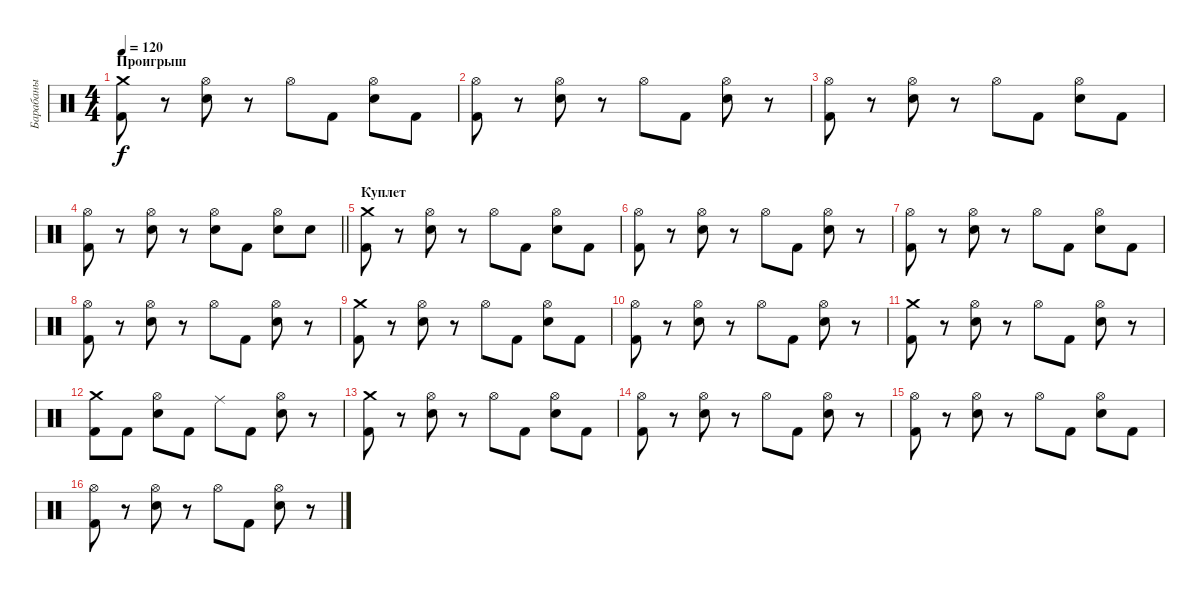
\track ("Барабаны" "Барабаны") {instrument percussion}
\staff {score}
\articulation defaults
\ts (4 4)
\section ("" "Проигрыш")
\tempo 120
\clef neutral
\ks c
("Kick (hit) 2" "Crash medium (hit)").8{dy f} r.8 ("Hi-Hat (open)" "Snare (hit) 2").8 r.8 "Hi-Hat (open)".8 "Kick (hit) 2".8 ("Hi-Hat (open)" "Snare (hit) 2").8 "Kick (hit) 2".8 |
("Hi-Hat (open)" "Kick (hit) 2").8 r.8 ("Hi-Hat (open)" "Snare (hit) 2").8 r.8 "Hi-Hat (open)".8 "Kick (hit) 2".8 ("Hi-Hat (open)" "Snare (hit) 2").8 r.8 |
("Hi-Hat (open)" "Kick (hit) 2").8 r.8 ("Hi-Hat (open)" "Snare (hit) 2").8 r.8 "Hi-Hat (open)".8 "Kick (hit) 2".8 ("Hi-Hat (open)" "Snare (hit) 2").8 "Kick (hit) 2".8 |
\barLineRight lightlight
("Hi-Hat (open)" "Kick (hit) 2").8 r.8 ("Hi-Hat (open)" "Snare (hit) 2").8 r.8 ("Hi-Hat (open)" "Snare (hit) 2").8 "Kick (hit) 2".8 ("Hi-Hat (open)" "Snare (hit) 2").8 "Snare (hit) 2".8 |
\section ("" "Куплет")
("Kick (hit) 2" "Crash medium (hit)").8 r.8 ("Hi-Hat (open)" "Snare (hit) 2").8 r.8 "Hi-Hat (open)".8 "Kick (hit) 2".8 ("Hi-Hat (open)" "Snare (hit) 2").8 "Kick (hit) 2".8 |
("Hi-Hat (open)" "Kick (hit) 2").8 r.8 ("Hi-Hat (open)" "Snare (hit) 2").8 r.8 "Hi-Hat (open)".8 "Kick (hit) 2".8 ("Hi-Hat (open)" "Snare (hit) 2").8 r.8 |
("Hi-Hat (open)" "Kick (hit) 2").8 r.8 ("Hi-Hat (open)" "Snare (hit) 2").8 r.8 "Hi-Hat (open)".8 "Kick (hit) 2".8 ("Hi-Hat (open)" "Snare (hit) 2").8 "Kick (hit) 2".8 |
("Hi-Hat (open)" "Kick (hit) 2").8 r.8 ("Hi-Hat (open)" "Snare (hit) 2").8 r.8 "Hi-Hat (open)".8 "Kick (hit) 2".8 ("Hi-Hat (open)" "Snare (hit) 2").8 r.8 |
("Kick (hit) 2" "Crash medium (hit)").8 r.8 ("Hi-Hat (open)" "Snare (hit) 2").8 r.8 "Hi-Hat (open)".8 "Kick (hit) 2".8 ("Hi-Hat (open)" "Snare (hit) 2").8 "Kick (hit) 2".8 |
("Hi-Hat (open)" "Kick (hit) 2").8 r.8 ("Hi-Hat (open)" "Snare (hit) 2").8 r.8 "Hi-Hat (open)".8 "Kick (hit) 2".8 ("Hi-Hat (open)" "Snare (hit) 2").8 r.8 |
("Kick (hit) 2" "Crash medium (hit)").8 r.8 ("Hi-Hat (open)" "Snare (hit) 2").8 r.8 "Hi-Hat (open)".8 "Kick (hit) 2".8 ("Hi-Hat (open)" "Snare (hit) 2").8 r.8 |
("Kick (hit) 2" "Crash medium (hit)").8 "Kick (hit) 2".8 ("Hi-Hat (open)" "Snare (hit) 2").8 "Kick (hit) 2".8 "Ride (middle)".8 "Kick (hit) 2".8 ("Hi-Hat (open)" "Snare (hit) 2").8 r.8 |
("Kick (hit) 2" "Crash medium (hit)").8 r.8 ("Hi-Hat (open)" "Snare (hit) 2").8 r.8 "Hi-Hat (open)".8 "Kick (hit) 2".8 ("Hi-Hat (open)" "Snare (hit) 2").8 "Kick (hit) 2".8 |
("Hi-Hat (open)" "Kick (hit) 2").8 r.8 ("Hi-Hat (open)" "Snare (hit) 2").8 r.8 "Hi-Hat (open)".8 "Kick (hit) 2".8 ("Hi-Hat (open)" "Snare (hit) 2").8 r.8 |
("Hi-Hat (open)" "Kick (hit) 2").8 r.8 ("Hi-Hat (open)" "Snare (hit) 2").8 r.8 "Hi-Hat (open)".8 "Kick (hit) 2".8 ("Hi-Hat (open)" "Snare (hit) 2").8 "Kick (hit) 2".8 |
("Hi-Hat (open)" "Kick (hit) 2").8 r.8 ("Hi-Hat (open)" "Snare (hit) 2").8 r.8 "Hi-Hat (open)".8 "Kick (hit) 2".8 ("Hi-Hat (open)" "Snare (hit) 2").8 r.8
